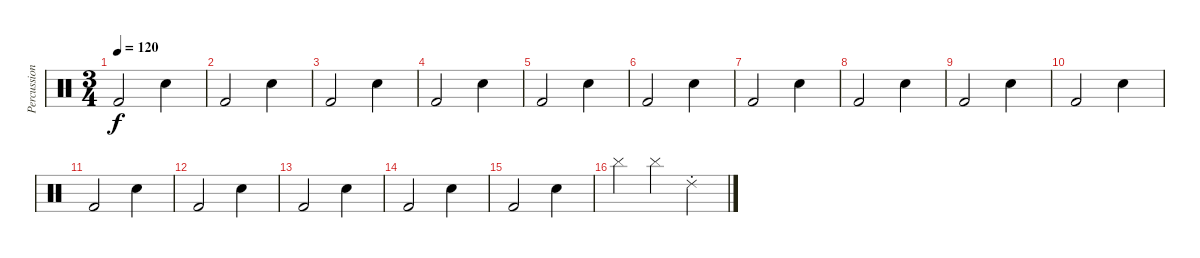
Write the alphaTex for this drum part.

\track ("Percussion" "Percussion") {instrument percussion}
\staff {score}
\articulation defaults
\ts (3 4)
\tempo 120
\clef neutral
\ks c "Kick (hit) 2".2{dy f} "Snare (hit) 2".4
|
"Kick (hit) 2".2 "Snare (hit) 2".4 |
"Kick (hit) 2".2 "Snare (hit) 2".4 |
"Kick (hit) 2".2 "Snare (hit) 2".4 |
"Kick (hit) 2".2 "Snare (hit) 2".4 |
"Kick (hit) 2".2 "Snare (hit) 2".4 |
"Kick (hit) 2".2 "Snare (hit) 2".4 |
"Kick (hit) 2".2 "Snare (hit) 2".4 |
"Kick (hit) 2".2 "Snare (hit) 2".4 |
"Kick (hit) 2".2 "Snare (hit) 2".4 |
"Kick (hit) 2".2 "Snare (hit) 2".4 |
"Kick (hit) 2".2 "Snare (hit) 2".4 |
"Kick (hit) 2".2 "Snare (hit) 2".4 |
"Kick (hit) 2".2 "Snare (hit) 2".4 |
"Kick (hit) 2".2 "Snare (hit) 2".4 |
"Cymbal (hit)".4 "Cymbal (hit)".4 "Ride (choke) 2".4
